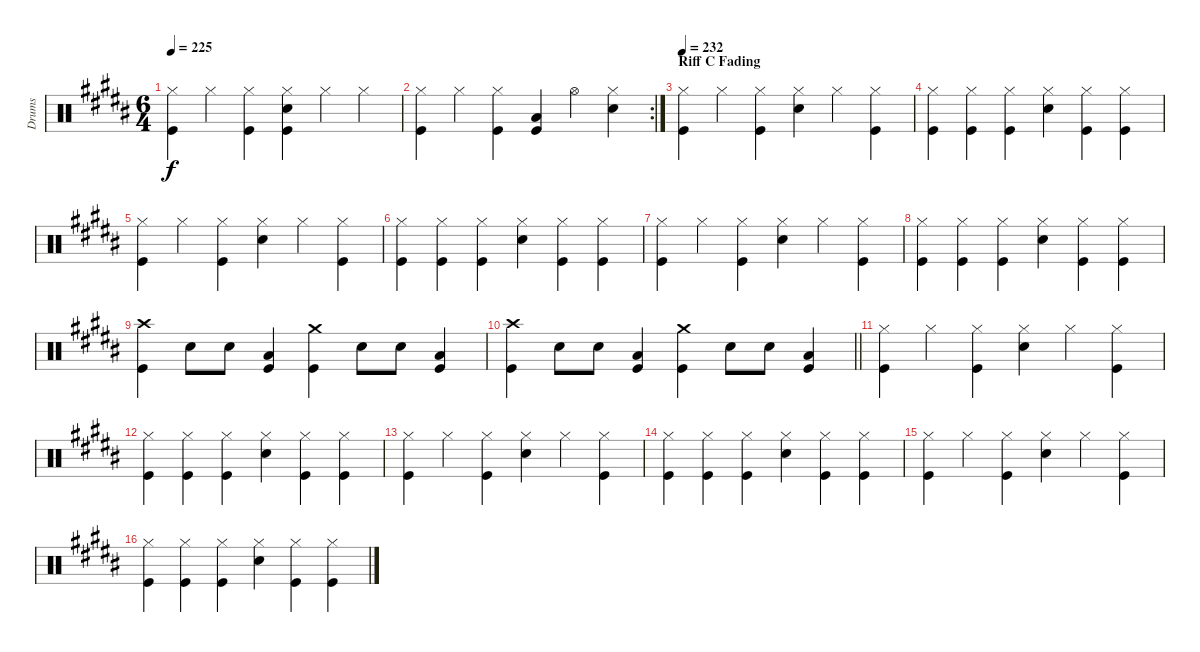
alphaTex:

\track ("Drums" "Drums") {instrument percussion}
\staff {score}
\articulation defaults
\ts (6 4)
\tempo 225
\clef neutral
\ks b
("Hi-Hat (closed)" "Kick (hit)").4{dy f} "Hi-Hat (closed)".4 ("Hi-Hat (closed)" "Kick (hit)").4 ("Hi-Hat (closed)" "Snare (hit) 2" "Kick (hit)").4 "Hi-Hat (closed)".4 "Hi-Hat (closed)".4 |
\rc 2
("Hi-Hat (closed)" "Kick (hit)").4 "Hi-Hat (closed)".4 ("Hi-Hat (closed)" "Kick (hit)").4 ("Low Floor Tom (hit)" "Kick (hit)").4 "Hi-Hat (open)".4 ("Hi-Hat (closed)" "Snare (hit) 2").4 |
\section ("" "Riff C Fading")
\tempo 232
("Hi-Hat (closed)" "Kick (hit)").4 "Hi-Hat (closed)".4 ("Hi-Hat (closed)" "Kick (hit)").4 ("Hi-Hat (closed)" "Snare (hit) 2").4 "Hi-Hat (closed)".4 ("Hi-Hat (closed)" "Kick (hit)").4 |
("Hi-Hat (closed)" "Kick (hit)").4 ("Hi-Hat (closed)" "Kick (hit)").4 ("Hi-Hat (closed)" "Kick (hit)").4 ("Hi-Hat (closed)" "Snare (hit) 2").4 ("Hi-Hat (closed)" "Kick (hit)").4 ("Hi-Hat (closed)" "Kick (hit)").4 |
("Hi-Hat (closed)" "Kick (hit)").4 "Hi-Hat (closed)".4 ("Hi-Hat (closed)" "Kick (hit)").4 ("Hi-Hat (closed)" "Snare (hit) 2").4 "Hi-Hat (closed)".4 ("Hi-Hat (closed)" "Kick (hit)").4 |
("Hi-Hat (closed)" "Kick (hit)").4 ("Hi-Hat (closed)" "Kick (hit)").4 ("Hi-Hat (closed)" "Kick (hit)").4 ("Hi-Hat (closed)" "Snare (hit) 2").4 ("Hi-Hat (closed)" "Kick (hit)").4 ("Hi-Hat (closed)" "Kick (hit)").4 |
("Hi-Hat (closed)" "Kick (hit)").4 "Hi-Hat (closed)".4 ("Hi-Hat (closed)" "Kick (hit)").4 ("Hi-Hat (closed)" "Snare (hit) 2").4 "Hi-Hat (closed)".4 ("Hi-Hat (closed)" "Kick (hit)").4 |
("Hi-Hat (closed)" "Kick (hit)").4 ("Hi-Hat (closed)" "Kick (hit)").4 ("Hi-Hat (closed)" "Kick (hit)").4 ("Hi-Hat (closed)" "Snare (hit) 2").4 ("Hi-Hat (closed)" "Kick (hit)").4 ("Hi-Hat (closed)" "Kick (hit)").4 |
("Crash high (hit)" "Kick (hit)").4 "Snare (hit) 2".8 "Snare (hit) 2".8 ("Low Floor Tom (hit)" "Kick (hit)").4 ("Crash medium (hit)" "Kick (hit)").4 "Snare (hit) 2".8 "Snare (hit) 2".8 ("Low Floor Tom (hit)" "Kick (hit)").4 |
\barLineRight lightlight
("Crash high (hit)" "Kick (hit)").4 "Snare (hit) 2".8 "Snare (hit) 2".8 ("Low Floor Tom (hit)" "Kick (hit)").4 ("Crash medium (hit)" "Kick (hit)").4 "Snare (hit) 2".8 "Snare (hit) 2".8 ("Low Floor Tom (hit)" "Kick (hit)").4 |
("Hi-Hat (closed)" "Kick (hit)").4{volume 4} "Hi-Hat (closed)".4 ("Hi-Hat (closed)" "Kick (hit)").4 ("Hi-Hat (closed)" "Snare (hit) 2").4 "Hi-Hat (closed)".4 ("Hi-Hat (closed)" "Kick (hit)").4 |
("Hi-Hat (closed)" "Kick (hit)").4 ("Hi-Hat (closed)" "Kick (hit)").4 ("Hi-Hat (closed)" "Kick (hit)").4 ("Hi-Hat (closed)" "Snare (hit) 2").4 ("Hi-Hat (closed)" "Kick (hit)").4 ("Hi-Hat (closed)" "Kick (hit)").4 |
("Hi-Hat (closed)" "Kick (hit)").4{volume 4} "Hi-Hat (closed)".4 ("Hi-Hat (closed)" "Kick (hit)").4 ("Hi-Hat (closed)" "Snare (hit) 2").4 "Hi-Hat (closed)".4 ("Hi-Hat (closed)" "Kick (hit)").4 |
("Hi-Hat (closed)" "Kick (hit)").4{volume 4} ("Hi-Hat (closed)" "Kick (hit)").4 ("Hi-Hat (closed)" "Kick (hit)").4 ("Hi-Hat (closed)" "Snare (hit) 2").4 ("Hi-Hat (closed)" "Kick (hit)").4 ("Hi-Hat (closed)" "Kick (hit)").4 |
("Hi-Hat (closed)" "Kick (hit)").4 "Hi-Hat (closed)".4 ("Hi-Hat (closed)" "Kick (hit)").4 ("Hi-Hat (closed)" "Snare (hit) 2").4 "Hi-Hat (closed)".4 ("Hi-Hat (closed)" "Kick (hit)").4 |
("Hi-Hat (closed)" "Kick (hit)").4{volume 3} ("Hi-Hat (closed)" "Kick (hit)").4 ("Hi-Hat (closed)" "Kick (hit)").4 ("Hi-Hat (closed)" "Snare (hit) 2").4 ("Hi-Hat (closed)" "Kick (hit)").4 ("Hi-Hat (closed)" "Kick (hit)").4
